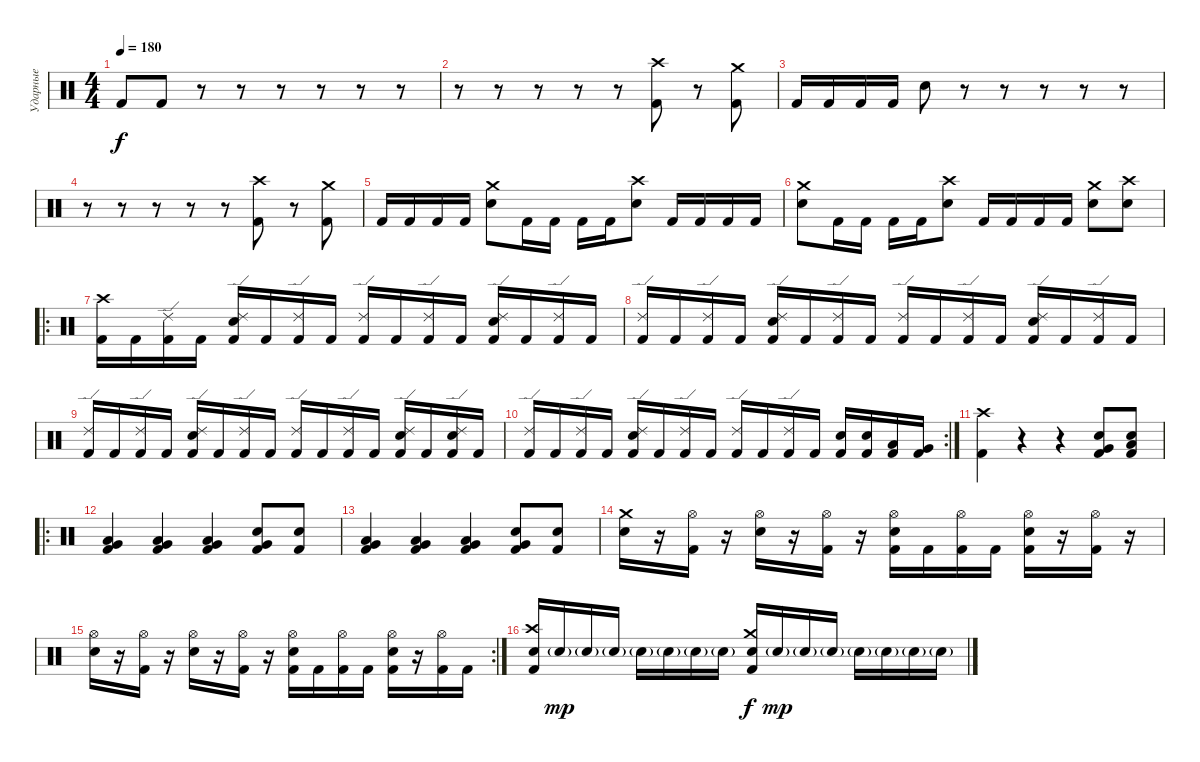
\track ("Ударные" "Ударные") {instrument percussion}
\staff {score}
\articulation defaults
\ts (4 4)
\tempo 180
\clef neutral
\ks c "Kick (hit) 2".8{dy f} "Kick (hit) 2".8
r.8 r.8 r.8 r.8 r.8 r.8 |
r.8 r.8 r.8 r.8 r.8 ("Crash high (hit)" "Kick (hit) 2").8 r.8 ("Crash medium (hit)" "Kick (hit) 2").8 |
"Kick (hit) 2".16 "Kick (hit) 2".16 "Kick (hit) 2".16 "Kick (hit) 2".16 "Snare (hit) 2".8 r.8 r.8 r.8 r.8 r.8 |
r.8 r.8 r.8 r.8 r.8 ("Crash high (hit)" "Kick (hit) 2").8 r.8 ("Crash medium (hit)" "Kick (hit) 2").8 |
"Kick (hit) 2".16 "Kick (hit) 2".16 "Kick (hit) 2".16 "Kick (hit) 2".16 ("Crash medium (hit)" "Snare (hit) 2").8 "Kick (hit) 2".16 "Kick (hit) 2".16 "Kick (hit) 2".16 "Kick (hit) 2".16 ("Crash high (hit)" "Snare (hit) 2").8 "Kick (hit) 2".16 "Kick (hit) 2".16 "Kick (hit) 2".16 "Kick (hit) 2".16 |
("Crash medium (hit)" "Snare (hit) 2").8 "Kick (hit) 2".16 "Kick (hit) 2".16 "Kick (hit) 2".16 "Kick (hit) 2".16 ("Crash high (hit)" "Snare (hit) 2").8 "Kick (hit) 2".16 "Kick (hit) 2".16 "Kick (hit) 2".16 "Kick (hit) 2".16 ("Crash medium (hit)" "Snare (hit) 2").8 ("Crash high (hit)" "Snare (hit) 2").8 |
\ro
("Crash high (hit)" "Kick (hit) 2").16 "Kick (hit) 2".16 ("Ride (edge) 2" "Kick (hit) 2").16 "Kick (hit) 2".16 ("Snare (hit) 2" "Ride (edge) 2" "Kick (hit) 2").16 "Kick (hit) 2".16 ("Ride (edge) 2" "Kick (hit) 2").16 "Kick (hit) 2".16 ("Ride (edge) 2" "Kick (hit) 2").16 "Kick (hit) 2".16 ("Ride (edge) 2" "Kick (hit) 2").16 "Kick (hit) 2".16 ("Snare (hit) 2" "Ride (edge) 2" "Kick (hit) 2").16 "Kick (hit) 2".16 ("Ride (edge) 2" "Kick (hit) 2").16 "Kick (hit) 2".16 |
("Ride (edge) 2" "Kick (hit) 2").16 "Kick (hit) 2".16 ("Ride (edge) 2" "Kick (hit) 2").16 "Kick (hit) 2".16 ("Snare (hit) 2" "Ride (edge) 2" "Kick (hit) 2").16 "Kick (hit) 2".16 ("Ride (edge) 2" "Kick (hit) 2").16 "Kick (hit) 2".16 ("Ride (edge) 2" "Kick (hit) 2").16 "Kick (hit) 2".16 ("Ride (edge) 2" "Kick (hit) 2").16 "Kick (hit) 2".16 ("Snare (hit) 2" "Ride (edge) 2" "Kick (hit) 2").16 "Kick (hit) 2".16 ("Ride (edge) 2" "Kick (hit) 2").16 "Kick (hit) 2".16 |
("Ride (edge) 2" "Kick (hit) 2").16 "Kick (hit) 2".16 ("Ride (edge) 2" "Kick (hit) 2").16 "Kick (hit) 2".16 ("Snare (hit) 2" "Ride (edge) 2" "Kick (hit) 2").16 "Kick (hit) 2".16 ("Ride (edge) 2" "Kick (hit) 2").16 "Kick (hit) 2".16 ("Ride (edge) 2" "Kick (hit) 2").16 "Kick (hit) 2".16 ("Ride (edge) 2" "Kick (hit) 2").16 "Kick (hit) 2".16 ("Snare (hit) 2" "Ride (edge) 2" "Kick (hit) 2").16 "Kick (hit) 2".16 ("Snare (hit) 2" "Ride (edge) 2" "Kick (hit) 2").16 "Kick (hit) 2".16 |
\rc 2
("Ride (edge) 2" "Kick (hit) 2").16 "Kick (hit) 2".16 ("Ride (edge) 2" "Kick (hit) 2").16 "Kick (hit) 2".16 ("Snare (hit) 2" "Ride (edge) 2" "Kick (hit) 2").16 "Kick (hit) 2".16 ("Ride (edge) 2" "Kick (hit) 2").16 "Kick (hit) 2".16 ("Ride (edge) 2" "Kick (hit) 2").16 "Kick (hit) 2".16 ("Ride (edge) 2" "Kick (hit) 2").16 "Kick (hit) 2".16 ("Snare (hit) 2" "Kick (hit) 2").16 ("Snare (hit) 2" "Kick (hit) 2").16 ("Low Tom (hit)" "Kick (hit) 2").16 ("Very Low Tom (hit)" "Kick (hit) 2").16 |
("Crash high (hit)" "Kick (hit) 2").4 r.4 r.4 ("Very Low Tom (hit)" "Snare (hit) 2" "Kick (hit) 2").8 ("Low Floor Tom (hit)" "Snare (hit) 2" "Kick (hit) 2").8 |
\ro
("Low Floor Tom (hit)" "Very Low Tom (hit)" "Kick (hit) 2").4 ("Very Low Tom (hit)" "Low Floor Tom (hit)" "Kick (hit) 2").4 ("Low Floor Tom (hit)" "Very Low Tom (hit)" "Kick (hit) 2").4 ("Very Low Tom (hit)" "Snare (hit) 2" "Kick (hit) 2").8 ("Snare (hit) 2" "Kick (hit) 2").8 |
("Low Floor Tom (hit)" "Very Low Tom (hit)" "Kick (hit) 2").4 ("Very Low Tom (hit)" "Low Floor Tom (hit)" "Kick (hit) 2").4 ("Low Floor Tom (hit)" "Very Low Tom (hit)" "Kick (hit) 2").4 ("Very Low Tom (hit)" "Snare (hit) 2" "Kick (hit) 2").8 ("Snare (hit) 2" "Kick (hit) 2").8 |
("Snare (hit) 2" "Crash medium (hit)").16 r.16 ("Hi-Hat (open)" "Kick (hit) 2").16 r.16 ("Snare (hit) 2" "Hi-Hat (open)").16 r.16 ("Hi-Hat (open)" "Kick (hit) 2").16 r.16 ("Snare (hit) 2" "Hi-Hat (open)" "Kick (hit) 2").16 "Kick (hit) 2".16 ("Hi-Hat (open)" "Kick (hit) 2").16 "Kick (hit) 2".16 ("Snare (hit) 2" "Hi-Hat (open)" "Kick (hit) 2").16 r.16 ("Hi-Hat (open)" "Kick (hit) 2").16 r.16 |
\rc 2
("Snare (hit) 2" "Hi-Hat (open)").16 r.16 ("Hi-Hat (open)" "Kick (hit) 2").16 r.16 ("Snare (hit) 2" "Hi-Hat (open)").16 r.16 ("Hi-Hat (open)" "Kick (hit) 2").16 r.16 ("Snare (hit) 2" "Hi-Hat (open)" "Kick (hit) 2").16 "Kick (hit) 2".16 ("Hi-Hat (open)" "Kick (hit) 2").16 "Kick (hit) 2".16 ("Snare (hit) 2" "Hi-Hat (open)" "Kick (hit) 2").16 r.16 ("Hi-Hat (open)" "Kick (hit) 2").16 "Kick (hit) 2".16 |
("Crash high (hit)" "Snare (hit) 2" "Kick (hit) 2").16 "Snare (hit) 2"{g}.16{dy mp} "Snare (hit) 2"{g}.16 "Snare (hit) 2"{g}.16 "Snare (hit) 2"{g}.16 "Snare (hit) 2"{g}.16 "Snare (hit) 2"{g}.16 "Snare (hit) 2"{g}.16 ("Crash medium (hit)" "Snare (hit) 2" "Kick (hit) 2").16{dy f} "Snare (hit) 2"{g}.16{dy mp} "Snare (hit) 2"{g}.16 "Snare (hit) 2"{g}.16 "Snare (hit) 2"{g}.16 "Snare (hit) 2"{g}.16 "Snare (hit) 2"{g}.16 "Snare (hit) 2"{g}.16
